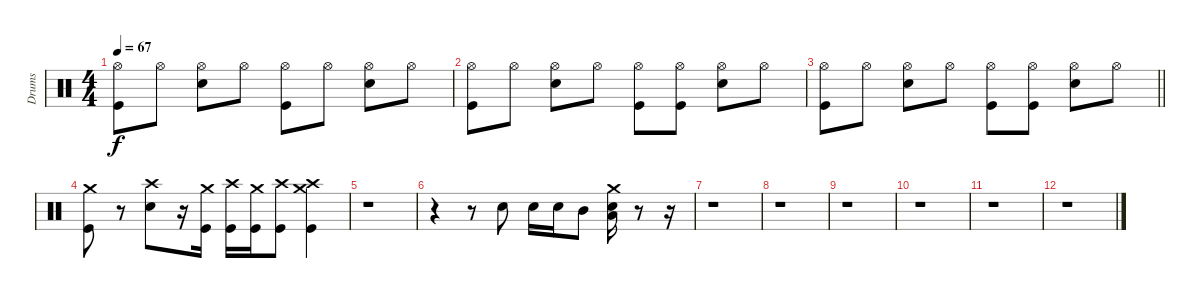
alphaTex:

\track ("Drums" "Drums") {instrument percussion}
\staff {score}
\articulation defaults
\ts (4 4)
\tempo 67
\clef neutral
\ks c
("Hi-Hat (open)" "Kick (hit)").8{dy f} "Hi-Hat (open)".8 ("Hi-Hat (open)" "Snare (hit) 2").8 "Hi-Hat (open)".8 ("Hi-Hat (open)" "Kick (hit)").8 "Hi-Hat (open)".8 ("Hi-Hat (open)" "Snare (hit) 2").8 "Hi-Hat (open)".8 |
("Hi-Hat (open)" "Kick (hit)").8 "Hi-Hat (open)".8 ("Hi-Hat (open)" "Snare (hit) 2").8 "Hi-Hat (open)".8 ("Hi-Hat (open)" "Kick (hit)").8 ("Hi-Hat (open)" "Kick (hit)").8 ("Hi-Hat (open)" "Snare (hit) 2").8 "Hi-Hat (open)".8 |
\barLineRight lightlight
("Hi-Hat (open)" "Kick (hit)").8 "Hi-Hat (open)".8 ("Hi-Hat (open)" "Snare (hit) 2").8 "Hi-Hat (open)".8 ("Hi-Hat (open)" "Kick (hit)").8 ("Hi-Hat (open)" "Kick (hit)").8 ("Hi-Hat (open)" "Snare (hit) 2").8 "Hi-Hat (open)".8 |
("Crash medium (hit)" "Kick (hit)").8 r.8 ("Crash high (hit)" "Snare (hit) 2").8 r.16 ("Crash medium (hit)" "Kick (hit)").16 ("Crash high (hit)" "Kick (hit)").16 ("Crash medium (hit)" "Kick (hit)").16 ("Crash high (hit)" "Kick (hit)").8 ("Crash medium (hit)" "Crash high (hit)" "Kick (hit)").4 |
r.1 |
r.4 r.8 "Snare (hit) 2".8 "Snare (hit) 2".16 "Snare (hit) 2".16 "Mid Tom (hit)".8 ("Crash medium (hit)" "Low Tom (hit)" "Snare (hit) 2").16 r.8 r.16 |
r.1 |
r.1 |
r.1 |
r.1 |
r.1 |
r.1
